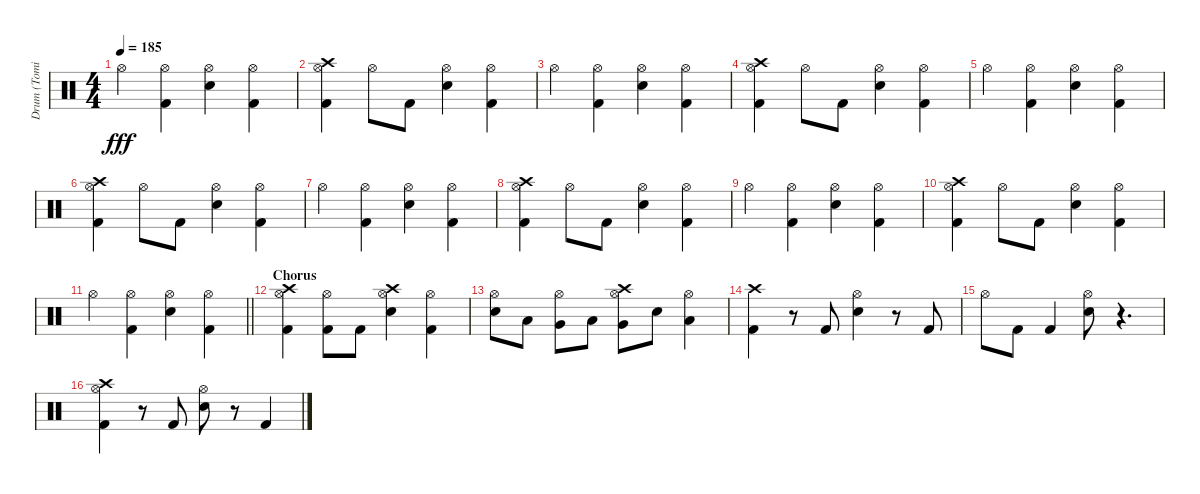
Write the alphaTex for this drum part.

\track ("Drum (Tomi)" "Drum (Tomi") {instrument percussion}
\staff {score}
\articulation defaults
\ts (4 4)
\tempo 185
\clef neutral
\ks c "Hi-Hat (open)".4{dy fff}
("Kick (hit) 2" "Hi-Hat (open)").4 ("Hi-Hat (open)" "Electric Snare (hit)").4 ("Hi-Hat (open)" "Kick (hit) 2").4 |
("Hi-Hat (open)" "Crash high (hit)" "Kick (hit) 2").4 "Hi-Hat (open)".8 "Kick (hit) 2".8 ("Hi-Hat (open)" "Electric Snare (hit)").4 ("Hi-Hat (open)" "Kick (hit) 2").4 |
"Hi-Hat (open)".4 ("Kick (hit) 2" "Hi-Hat (open)").4 ("Hi-Hat (open)" "Electric Snare (hit)").4 ("Hi-Hat (open)" "Kick (hit) 2").4 |
("Hi-Hat (open)" "Crash high (hit)" "Kick (hit) 2").4 "Hi-Hat (open)".8 "Kick (hit) 2".8 ("Hi-Hat (open)" "Electric Snare (hit)").4 ("Hi-Hat (open)" "Kick (hit) 2").4 |
"Hi-Hat (open)".4 ("Kick (hit) 2" "Hi-Hat (open)").4 ("Hi-Hat (open)" "Electric Snare (hit)").4 ("Hi-Hat (open)" "Kick (hit) 2").4 |
("Hi-Hat (open)" "Crash high (hit)" "Kick (hit) 2").4 "Hi-Hat (open)".8 "Kick (hit) 2".8 ("Hi-Hat (open)" "Electric Snare (hit)").4 ("Kick (hit) 2" "Hi-Hat (open)").4 |
"Hi-Hat (open)".4 ("Kick (hit) 2" "Hi-Hat (open)").4 ("Hi-Hat (open)" "Electric Snare (hit)").4 ("Hi-Hat (open)" "Kick (hit) 2").4 |
("Kick (hit) 2" "Hi-Hat (open)" "Crash high (hit)").4 "Hi-Hat (open)".8 "Kick (hit) 2".8 ("Hi-Hat (open)" "Electric Snare (hit)").4 ("Hi-Hat (open)" "Kick (hit) 2").4 |
"Hi-Hat (open)".4 ("Kick (hit) 2" "Hi-Hat (open)").4 ("Hi-Hat (open)" "Electric Snare (hit)").4 ("Hi-Hat (open)" "Kick (hit) 2").4 |
("Hi-Hat (open)" "Crash high (hit)" "Kick (hit) 2").4 "Hi-Hat (open)".8 "Kick (hit) 2".8 ("Hi-Hat (open)" "Electric Snare (hit)").4 ("Hi-Hat (open)" "Kick (hit) 2").4 |
\barLineRight lightlight "Hi-Hat (open)".4
("Hi-Hat (open)" "Kick (hit) 2").4 ("Hi-Hat (open)" "Electric Snare (hit)").4 ("Kick (hit) 2" "Hi-Hat (open)").4 |
\section ("" "Chorus")
("Crash high (hit)" "Hi-Hat (open)" "Kick (hit) 2").4 ("Kick (hit) 2" "Hi-Hat (open)").8 "Kick (hit) 2".8 ("Crash high (hit)" "Hi-Hat (open)" "Electric Snare (hit)").4 ("Kick (hit) 2" "Hi-Hat (open)").4 |
("Hi-Hat (open)" "Electric Snare (hit)").8 "Low Tom (hit)".8 ("Hi-Hat (open)" "Very Low Tom (hit)").8 "Low Floor Tom (hit)".8 ("Hi-Hat (open)" "Crash high (hit)" "Very Low Tom (hit)").8 "Electric Snare (hit)".8 ("Hi-Hat (open)" "Low Floor Tom (hit)").4 |
("Kick (hit) 2" "Crash high (hit)").4 r.8 "Kick (hit) 2".8 ("Hi-Hat (open)" "Electric Snare (hit)").4 r.8 "Kick (hit) 2".8 |
"Hi-Hat (open)".8 "Kick (hit) 2".8 "Kick (hit) 2".4 ("Hi-Hat (open)" "Electric Snare (hit)").8 r.4{d} |
("Kick (hit) 2" "Hi-Hat (open)" "Crash high (hit)").4 r.8 "Kick (hit) 2".8 ("Hi-Hat (open)" "Electric Snare (hit)").8 r.8 "Kick (hit) 2".4
